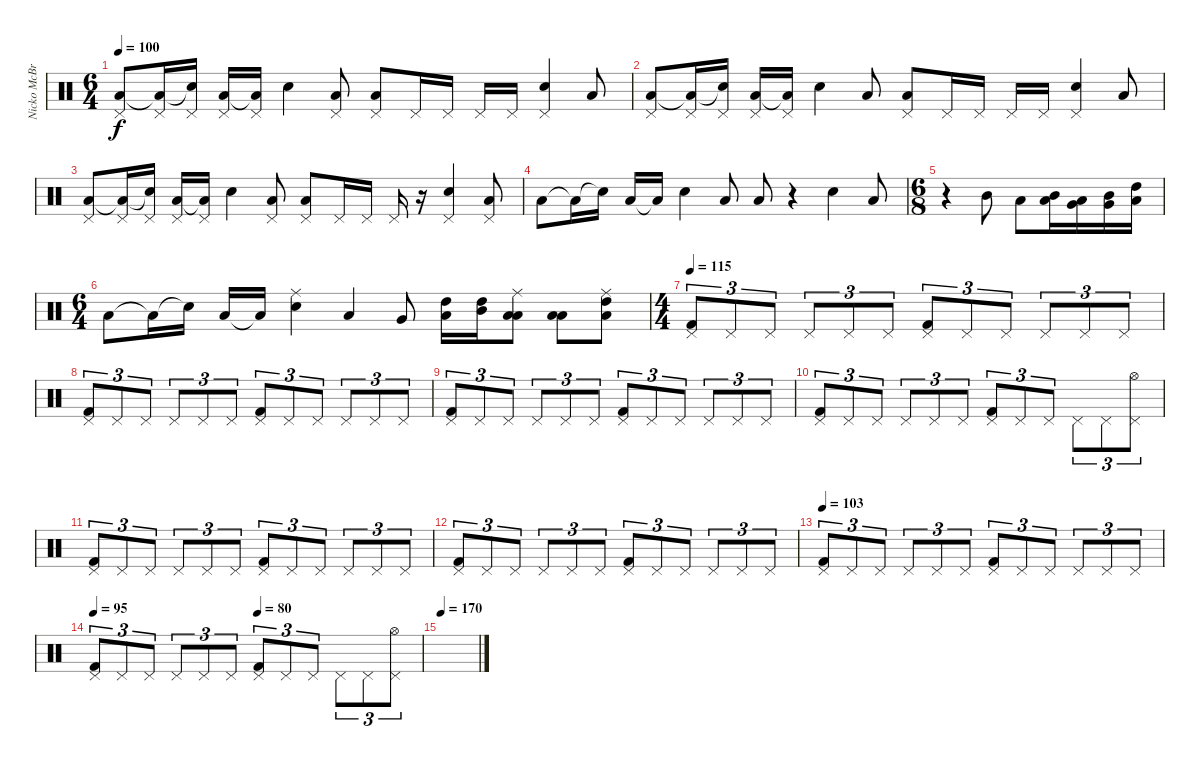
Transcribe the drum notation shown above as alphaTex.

\track ("Nicko McBrain" "Nicko McBr") {instrument percussion}
\staff {score}
\articulation defaults
\ts (6 4)
\tempo 100
\clef neutral
\ks c
("Pedal Hi-Hat (hit)" "Low Floor Tom (hit)").8{dy f} ("Pedal Hi-Hat (hit)" "Low Floor Tom (hit)"{t}).16 ("Pedal Hi-Hat (hit)" "Electric Snare (hit)"{t}).16 ("Pedal Hi-Hat (hit)" "Low Floor Tom (hit)").16 ("Pedal Hi-Hat (hit)" "Low Floor Tom (hit)"{t}).16 "Electric Snare (hit)".4 ("Pedal Hi-Hat (hit)" "Low Floor Tom (hit)").8 ("Pedal Hi-Hat (hit)" "Low Floor Tom (hit)").8 "Pedal Hi-Hat (hit)".16 "Pedal Hi-Hat (hit)".16 "Pedal Hi-Hat (hit)".16 "Pedal Hi-Hat (hit)".16 ("Pedal Hi-Hat (hit)" "Electric Snare (hit)").4 "Low Floor Tom (hit)".8 |
("Pedal Hi-Hat (hit)" "Low Floor Tom (hit)").8 ("Pedal Hi-Hat (hit)" "Low Floor Tom (hit)"{t}).16 ("Pedal Hi-Hat (hit)" "Electric Snare (hit)"{t}).16 ("Pedal Hi-Hat (hit)" "Low Floor Tom (hit)").16 ("Pedal Hi-Hat (hit)" "Low Floor Tom (hit)"{t}).16 "Electric Snare (hit)".4 "Low Floor Tom (hit)".8 ("Pedal Hi-Hat (hit)" "Low Floor Tom (hit)").8 "Pedal Hi-Hat (hit)".16 "Pedal Hi-Hat (hit)".16 "Pedal Hi-Hat (hit)".16 "Pedal Hi-Hat (hit)".16 ("Pedal Hi-Hat (hit)" "Electric Snare (hit)").4 "Low Floor Tom (hit)".8 |
("Pedal Hi-Hat (hit)" "Low Floor Tom (hit)").8 ("Pedal Hi-Hat (hit)" "Low Floor Tom (hit)"{t}).16 ("Pedal Hi-Hat (hit)" "Electric Snare (hit)"{t}).16 ("Pedal Hi-Hat (hit)" "Low Floor Tom (hit)").16 ("Pedal Hi-Hat (hit)" "Low Floor Tom (hit)"{t}).16 "Electric Snare (hit)".4 ("Pedal Hi-Hat (hit)" "Low Floor Tom (hit)").8 ("Pedal Hi-Hat (hit)" "Low Floor Tom (hit)").8 "Pedal Hi-Hat (hit)".16 "Pedal Hi-Hat (hit)".16 "Pedal Hi-Hat (hit)".16 r.16 ("Pedal Hi-Hat (hit)" "Electric Snare (hit)").4 ("Pedal Hi-Hat (hit)" "Low Floor Tom (hit)").8 |
"Low Floor Tom (hit)".8 "Low Floor Tom (hit)"{t}.16 "Electric Snare (hit)"{t}.16 "Low Floor Tom (hit)".16 "Low Floor Tom (hit)"{t}.16 "Electric Snare (hit)".4 "Low Floor Tom (hit)".8 "Low Floor Tom (hit)".8 r.4 "Electric Snare (hit)".4 "Low Floor Tom (hit)".8 |
\ts (6 8)
r.4 "Mid Tom (hit)".8 "Low Tom (hit)".8 ("Mid Tom (hit)" "Low Tom (hit)").16 ("Low Tom (hit)" "Very Low Tom (hit)").16 ("Very Low Tom (hit)" "Mid Tom (hit)").16 ("High Tom (hit)" "Low Floor Tom (hit)").16 |
\ts (6 4)
"Low Floor Tom (hit)".8 "Low Floor Tom (hit)"{t}.16 "Electric Snare (hit)"{t}.16 "Low Floor Tom (hit)".16 "Low Floor Tom (hit)"{t}.16 ("Ride (middle)" "Electric Snare (hit)").4 "Low Floor Tom (hit)".4 "Very Low Tom (hit)".8 ("High Tom (hit)" "Low Floor Tom (hit)").16 ("High Tom (hit)" "Mid Tom (hit)").16 ("Low Tom (hit)" "Low Tom (hit)" "Ride (middle)").8 ("Low Floor Tom (hit)" "Low Tom (hit)").8 ("High Tom (hit)" "Low Tom (hit)" "Ride (middle)").8 |
\ts (4 4)
\tempo 115
("Pedal Hi-Hat (hit)" "Kick (hit) 2").8{tu (3 2)} "Pedal Hi-Hat (hit)".8{tu (3 2)} "Pedal Hi-Hat (hit)".8{tu (3 2)} "Pedal Hi-Hat (hit)".8{tu (3 2)} "Pedal Hi-Hat (hit)".8{tu (3 2)} "Pedal Hi-Hat (hit)".8{tu (3 2)} ("Pedal Hi-Hat (hit)" "Kick (hit) 2").8{tu (3 2)} "Pedal Hi-Hat (hit)".8{tu (3 2)} "Pedal Hi-Hat (hit)".8{tu (3 2)} "Pedal Hi-Hat (hit)".8{tu (3 2)} "Pedal Hi-Hat (hit)".8{tu (3 2)} "Pedal Hi-Hat (hit)".8{tu (3 2)} |
("Pedal Hi-Hat (hit)" "Kick (hit) 2").8{tu (3 2)} "Pedal Hi-Hat (hit)".8{tu (3 2)} "Pedal Hi-Hat (hit)".8{tu (3 2)} "Pedal Hi-Hat (hit)".8{tu (3 2)} "Pedal Hi-Hat (hit)".8{tu (3 2)} "Pedal Hi-Hat (hit)".8{tu (3 2)} ("Pedal Hi-Hat (hit)" "Kick (hit) 2").8{tu (3 2)} "Pedal Hi-Hat (hit)".8{tu (3 2)} "Pedal Hi-Hat (hit)".8{tu (3 2)} "Pedal Hi-Hat (hit)".8{tu (3 2)} "Pedal Hi-Hat (hit)".8{tu (3 2)} "Pedal Hi-Hat (hit)".8{tu (3 2)} |
("Pedal Hi-Hat (hit)" "Kick (hit) 2").8{tu (3 2)} "Pedal Hi-Hat (hit)".8{tu (3 2)} "Pedal Hi-Hat (hit)".8{tu (3 2)} "Pedal Hi-Hat (hit)".8{tu (3 2)} "Pedal Hi-Hat (hit)".8{tu (3 2)} "Pedal Hi-Hat (hit)".8{tu (3 2)} ("Pedal Hi-Hat (hit)" "Kick (hit) 2").8{tu (3 2)} "Pedal Hi-Hat (hit)".8{tu (3 2)} "Pedal Hi-Hat (hit)".8{tu (3 2)} "Pedal Hi-Hat (hit)".8{tu (3 2)} "Pedal Hi-Hat (hit)".8{tu (3 2)} "Pedal Hi-Hat (hit)".8{tu (3 2)} |
("Pedal Hi-Hat (hit)" "Kick (hit) 2").8{tu (3 2)} "Pedal Hi-Hat (hit)".8{tu (3 2)} "Pedal Hi-Hat (hit)".8{tu (3 2)} "Pedal Hi-Hat (hit)".8{tu (3 2)} "Pedal Hi-Hat (hit)".8{tu (3 2)} "Pedal Hi-Hat (hit)".8{tu (3 2)} ("Pedal Hi-Hat (hit)" "Kick (hit) 2").8{tu (3 2)} "Pedal Hi-Hat (hit)".8{tu (3 2)} "Pedal Hi-Hat (hit)".8{tu (3 2)} "Pedal Hi-Hat (hit)".8{tu (3 2)} "Pedal Hi-Hat (hit)".8{tu (3 2)} ("Pedal Hi-Hat (hit)" "Hi-Hat (open)").8{tu (3 2)} |
("Pedal Hi-Hat (hit)" "Kick (hit) 2").8{tu (3 2)} "Pedal Hi-Hat (hit)".8{tu (3 2)} "Pedal Hi-Hat (hit)".8{tu (3 2)} "Pedal Hi-Hat (hit)".8{tu (3 2)} "Pedal Hi-Hat (hit)".8{tu (3 2)} "Pedal Hi-Hat (hit)".8{tu (3 2)} ("Pedal Hi-Hat (hit)" "Kick (hit) 2").8{tu (3 2)} "Pedal Hi-Hat (hit)".8{tu (3 2)} "Pedal Hi-Hat (hit)".8{tu (3 2)} "Pedal Hi-Hat (hit)".8{tu (3 2)} "Pedal Hi-Hat (hit)".8{tu (3 2)} "Pedal Hi-Hat (hit)".8{tu (3 2)} |
("Pedal Hi-Hat (hit)" "Kick (hit) 2").8{tu (3 2)} "Pedal Hi-Hat (hit)".8{tu (3 2)} "Pedal Hi-Hat (hit)".8{tu (3 2)} "Pedal Hi-Hat (hit)".8{tu (3 2)} "Pedal Hi-Hat (hit)".8{tu (3 2)} "Pedal Hi-Hat (hit)".8{tu (3 2)} ("Pedal Hi-Hat (hit)" "Kick (hit) 2").8{tu (3 2)} "Pedal Hi-Hat (hit)".8{tu (3 2)} "Pedal Hi-Hat (hit)".8{tu (3 2)} "Pedal Hi-Hat (hit)".8{tu (3 2)} "Pedal Hi-Hat (hit)".8{tu (3 2)} "Pedal Hi-Hat (hit)".8{tu (3 2)} |
\tempo 103
("Pedal Hi-Hat (hit)" "Kick (hit) 2").8{tu (3 2)} "Pedal Hi-Hat (hit)".8{tu (3 2)} "Pedal Hi-Hat (hit)".8{tu (3 2)} "Pedal Hi-Hat (hit)".8{tu (3 2)} "Pedal Hi-Hat (hit)".8{tu (3 2)} "Pedal Hi-Hat (hit)".8{tu (3 2)} ("Pedal Hi-Hat (hit)" "Kick (hit) 2").8{tu (3 2)} "Pedal Hi-Hat (hit)".8{tu (3 2)} "Pedal Hi-Hat (hit)".8{tu (3 2)} "Pedal Hi-Hat (hit)".8{tu (3 2)} "Pedal Hi-Hat (hit)".8{tu (3 2)} "Pedal Hi-Hat (hit)".8{tu (3 2)} |
\tempo 95
\tempo (80 0.5)
("Pedal Hi-Hat (hit)" "Kick (hit) 2").8{tu (3 2)} "Pedal Hi-Hat (hit)".8{tu (3 2)} "Pedal Hi-Hat (hit)".8{tu (3 2)} "Pedal Hi-Hat (hit)".8{tu (3 2)} "Pedal Hi-Hat (hit)".8{tu (3 2)} "Pedal Hi-Hat (hit)".8{tu (3 2)} ("Pedal Hi-Hat (hit)" "Kick (hit) 2").8{tu (3 2)} "Pedal Hi-Hat (hit)".8{tu (3 2)} "Pedal Hi-Hat (hit)".8{tu (3 2)} "Pedal Hi-Hat (hit)".8{tu (3 2)} "Pedal Hi-Hat (hit)".8{tu (3 2)} ("Pedal Hi-Hat (hit)" "Hi-Hat (open)").8{tu (3 2)} |
\tempo 170
